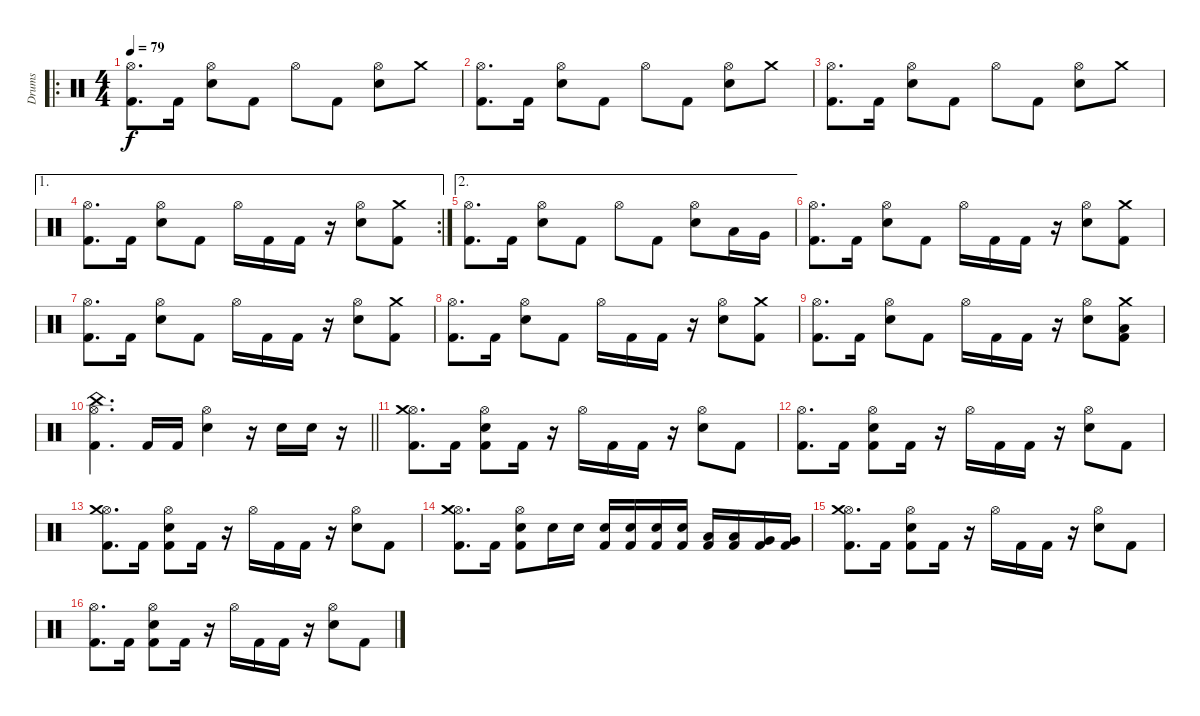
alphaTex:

\track ("Drums" "Drums") {instrument percussion}
\staff {score}
\articulation defaults
\ro
\ts (4 4)
\tempo 79
\clef neutral
\ks c
("Hi-Hat (open)" "Kick (hit) 2").8{d dy f} "Kick (hit) 2".16 ("Hi-Hat (open)" "Electric Snare (hit)").8 "Kick (hit) 2".8 "Hi-Hat (open)".8 "Kick (hit) 2".8 ("Hi-Hat (open)" "Electric Snare (hit)").8 "Crash medium (hit)".8 |
("Hi-Hat (open)" "Kick (hit) 2").8{d} "Kick (hit) 2".16 ("Hi-Hat (open)" "Electric Snare (hit)").8 "Kick (hit) 2".8 "Hi-Hat (open)".8 "Kick (hit) 2".8 ("Hi-Hat (open)" "Electric Snare (hit)").8 "Crash medium (hit)".8 |
("Hi-Hat (open)" "Kick (hit) 2").8{d} "Kick (hit) 2".16 ("Hi-Hat (open)" "Electric Snare (hit)").8 "Kick (hit) 2".8 "Hi-Hat (open)".8 "Kick (hit) 2".8 ("Hi-Hat (open)" "Electric Snare (hit)").8 "Crash medium (hit)".8 |
\ae 1
\rc 2
("Hi-Hat (open)" "Kick (hit) 2").8{d} "Kick (hit) 2".16 ("Hi-Hat (open)" "Electric Snare (hit)").8 "Kick (hit) 2".8 "Hi-Hat (open)".16 "Kick (hit) 2".16 "Kick (hit) 2".16 r.16 ("Hi-Hat (open)" "Electric Snare (hit)").8 ("Crash medium (hit)" "Kick (hit) 2").8 |
\ae 2
("Hi-Hat (open)" "Kick (hit) 2").8{d} "Kick (hit) 2".16 ("Hi-Hat (open)" "Electric Snare (hit)").8 "Kick (hit) 2".8 "Hi-Hat (open)".8 "Kick (hit) 2".8 ("Hi-Hat (open)" "Electric Snare (hit)").8 "Low Tom (hit)".16 "Very Low Tom (hit)".16 |
("Hi-Hat (open)" "Kick (hit) 2").8{d} "Kick (hit) 2".16 ("Hi-Hat (open)" "Electric Snare (hit)").8 "Kick (hit) 2".8 "Hi-Hat (open)".16 "Kick (hit) 2".16 "Kick (hit) 2".16 r.16 ("Hi-Hat (open)" "Electric Snare (hit)").8 ("Crash medium (hit)" "Kick (hit) 2").8 |
("Hi-Hat (open)" "Kick (hit) 2").8{d} "Kick (hit) 2".16 ("Hi-Hat (open)" "Electric Snare (hit)").8 "Kick (hit) 2".8 "Hi-Hat (open)".16 "Kick (hit) 2".16 "Kick (hit) 2".16 r.16 ("Hi-Hat (open)" "Electric Snare (hit)").8 ("Crash medium (hit)" "Kick (hit) 2").8 |
("Hi-Hat (open)" "Kick (hit) 2").8{d} "Kick (hit) 2".16 ("Hi-Hat (open)" "Electric Snare (hit)").8 "Kick (hit) 2".8 "Hi-Hat (open)".16 "Kick (hit) 2".16 "Kick (hit) 2".16 r.16 ("Hi-Hat (open)" "Electric Snare (hit)").8 ("Crash medium (hit)" "Kick (hit) 2").8 |
("Hi-Hat (open)" "Kick (hit) 2").8{d} "Kick (hit) 2".16 ("Hi-Hat (open)" "Electric Snare (hit)").8 "Kick (hit) 2".8 "Hi-Hat (open)".16 "Kick (hit) 2".16 "Kick (hit) 2".16 r.16 ("Hi-Hat (open)" "Electric Snare (hit)").8 ("Crash medium (hit)" "Low Tom (hit)" "Kick (hit) 2").8 |
\barLineRight lightlight
("Hi-Hat (open)" "China (hit)" "Kick (hit) 2").4{d} "Kick (hit) 2".16 "Kick (hit) 2".16 ("Hi-Hat (open)" "Electric Snare (hit)").4 r.16 "Electric Snare (hit)".16 "Electric Snare (hit)".16 r.16 |
("Hi-Hat (open)" "Crash medium (hit)" "Kick (hit) 2").8{d} "Kick (hit) 2".16 ("Hi-Hat (open)" "Electric Snare (hit)" "Kick (hit) 2").8 "Kick (hit) 2".16 r.16 "Hi-Hat (open)".16 "Kick (hit) 2".16 "Kick (hit) 2".16 r.16 ("Hi-Hat (open)" "Electric Snare (hit)").8 "Kick (hit) 2".8 |
("Hi-Hat (open)" "Kick (hit) 2").8{d} "Kick (hit) 2".16 ("Hi-Hat (open)" "Electric Snare (hit)" "Kick (hit) 2").8 "Kick (hit) 2".16 r.16 "Hi-Hat (open)".16 "Kick (hit) 2".16 "Kick (hit) 2".16 r.16 ("Hi-Hat (open)" "Electric Snare (hit)").8 "Kick (hit) 2".8 |
("Hi-Hat (open)" "Crash medium (hit)" "Kick (hit) 2").8{d} "Kick (hit) 2".16 ("Hi-Hat (open)" "Electric Snare (hit)" "Kick (hit) 2").8 "Kick (hit) 2".16 r.16 "Hi-Hat (open)".16 "Kick (hit) 2".16 "Kick (hit) 2".16 r.16 ("Hi-Hat (open)" "Electric Snare (hit)").8 "Kick (hit) 2".8 |
("Hi-Hat (open)" "Crash medium (hit)" "Kick (hit) 2").8{d} "Kick (hit) 2".16 ("Hi-Hat (open)" "Electric Snare (hit)" "Kick (hit) 2").8 "Electric Snare (hit)".16 "Electric Snare (hit)".16 ("Electric Snare (hit)" "Kick (hit) 2").16 ("Electric Snare (hit)" "Kick (hit) 2").16 ("Electric Snare (hit)" "Kick (hit) 2").16 ("Electric Snare (hit)" "Kick (hit) 2").16 ("Low Tom (hit)" "Kick (hit) 2").16 ("Low Tom (hit)" "Kick (hit) 2").16 ("Very Low Tom (hit)" "Kick (hit) 2").16 ("Very Low Tom (hit)" "Kick (hit) 2").16 |
("Hi-Hat (open)" "Crash medium (hit)" "Kick (hit) 2").8{d} "Kick (hit) 2".16 ("Hi-Hat (open)" "Electric Snare (hit)" "Kick (hit) 2").8 "Kick (hit) 2".16 r.16 "Hi-Hat (open)".16 "Kick (hit) 2".16 "Kick (hit) 2".16 r.16 ("Hi-Hat (open)" "Electric Snare (hit)").8 "Kick (hit) 2".8 |
("Hi-Hat (open)" "Kick (hit) 2").8{d} "Kick (hit) 2".16 ("Hi-Hat (open)" "Electric Snare (hit)" "Kick (hit) 2").8 "Kick (hit) 2".16 r.16 "Hi-Hat (open)".16 "Kick (hit) 2".16 "Kick (hit) 2".16 r.16 ("Hi-Hat (open)" "Electric Snare (hit)").8 "Kick (hit) 2".8
